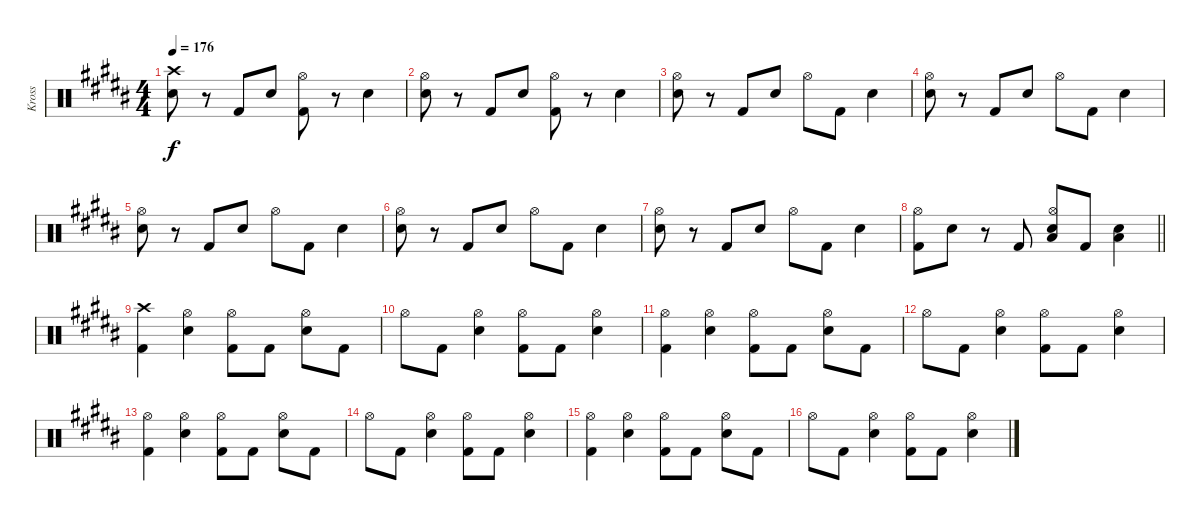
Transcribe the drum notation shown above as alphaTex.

\track ("Kross" "Kross") {instrument percussion}
\staff {score}
\articulation defaults
\ts (4 4)
\tempo 176
\clef neutral
\ks b
("Crash high (hit)" "Electric Snare (hit)").8{dy f} r.8 "Kick (hit) 2".8 "Electric Snare (hit)".8 ("Hi-Hat (open)" "Kick (hit) 2").8 r.8 "Electric Snare (hit)".4 |
("Hi-Hat (open)" "Electric Snare (hit)").8 r.8 "Kick (hit) 2".8 "Electric Snare (hit)".8 ("Hi-Hat (open)" "Kick (hit) 2").8 r.8 "Electric Snare (hit)".4 |
("Hi-Hat (open)" "Electric Snare (hit)").8 r.8 "Kick (hit) 2".8 "Electric Snare (hit)".8 "Hi-Hat (open)".8 "Kick (hit) 2".8 "Electric Snare (hit)".4 |
("Hi-Hat (open)" "Electric Snare (hit)").8 r.8 "Kick (hit) 2".8 "Electric Snare (hit)".8 "Hi-Hat (open)".8 "Kick (hit) 2".8 "Electric Snare (hit)".4 |
("Hi-Hat (open)" "Electric Snare (hit)").8 r.8 "Kick (hit) 2".8 "Electric Snare (hit)".8 "Hi-Hat (open)".8 "Kick (hit) 2".8 "Electric Snare (hit)".4 |
("Hi-Hat (open)" "Electric Snare (hit)").8 r.8 "Kick (hit) 2".8 "Electric Snare (hit)".8 "Hi-Hat (open)".8 "Kick (hit) 2".8 "Electric Snare (hit)".4 |
("Hi-Hat (open)" "Electric Snare (hit)").8 r.8 "Kick (hit) 2".8 "Electric Snare (hit)".8 "Hi-Hat (open)".8 "Kick (hit) 2".8 "Electric Snare (hit)".4 |
\barLineRight lightlight
("Hi-Hat (open)" "Kick (hit) 2").8 "Electric Snare (hit)".8 r.8 "Kick (hit) 2".8 ("Hi-Hat (open)" "Low Floor Tom (hit)" "Electric Snare (hit)").8 "Kick (hit) 2".8 ("Low Floor Tom (hit)" "Electric Snare (hit)").4 |
("Crash high (hit)" "Kick (hit) 2").4 ("Hi-Hat (open)" "Electric Snare (hit)").4 ("Hi-Hat (open)" "Kick (hit) 2").8 "Kick (hit) 2".8 ("Hi-Hat (open)" "Electric Snare (hit)").8 "Kick (hit) 2".8 |
"Hi-Hat (open)".8 "Kick (hit) 2".8 ("Hi-Hat (open)" "Electric Snare (hit)").4 ("Hi-Hat (open)" "Kick (hit) 2").8 "Kick (hit) 2".8 ("Hi-Hat (open)" "Electric Snare (hit)").4 |
("Hi-Hat (open)" "Kick (hit) 2").4 ("Hi-Hat (open)" "Electric Snare (hit)").4 ("Hi-Hat (open)" "Kick (hit) 2").8 "Kick (hit) 2".8 ("Hi-Hat (open)" "Electric Snare (hit)").8 "Kick (hit) 2".8 |
"Hi-Hat (open)".8 "Kick (hit) 2".8 ("Hi-Hat (open)" "Electric Snare (hit)").4 ("Hi-Hat (open)" "Kick (hit) 2").8 "Kick (hit) 2".8 ("Hi-Hat (open)" "Electric Snare (hit)").4 |
("Hi-Hat (open)" "Kick (hit) 2").4 ("Hi-Hat (open)" "Electric Snare (hit)").4 ("Hi-Hat (open)" "Kick (hit) 2").8 "Kick (hit) 2".8 ("Hi-Hat (open)" "Electric Snare (hit)").8 "Kick (hit) 2".8 |
"Hi-Hat (open)".8 "Kick (hit) 2".8 ("Hi-Hat (open)" "Electric Snare (hit)").4 ("Hi-Hat (open)" "Kick (hit) 2").8 "Kick (hit) 2".8 ("Hi-Hat (open)" "Electric Snare (hit)").4 |
("Hi-Hat (open)" "Kick (hit) 2").4 ("Hi-Hat (open)" "Electric Snare (hit)").4 ("Hi-Hat (open)" "Kick (hit) 2").8 "Kick (hit) 2".8 ("Hi-Hat (open)" "Electric Snare (hit)").8 "Kick (hit) 2".8 |
"Hi-Hat (open)".8 "Kick (hit) 2".8 ("Hi-Hat (open)" "Electric Snare (hit)").4 ("Hi-Hat (open)" "Kick (hit) 2").8 "Kick (hit) 2".8 ("Hi-Hat (open)" "Electric Snare (hit)").4
